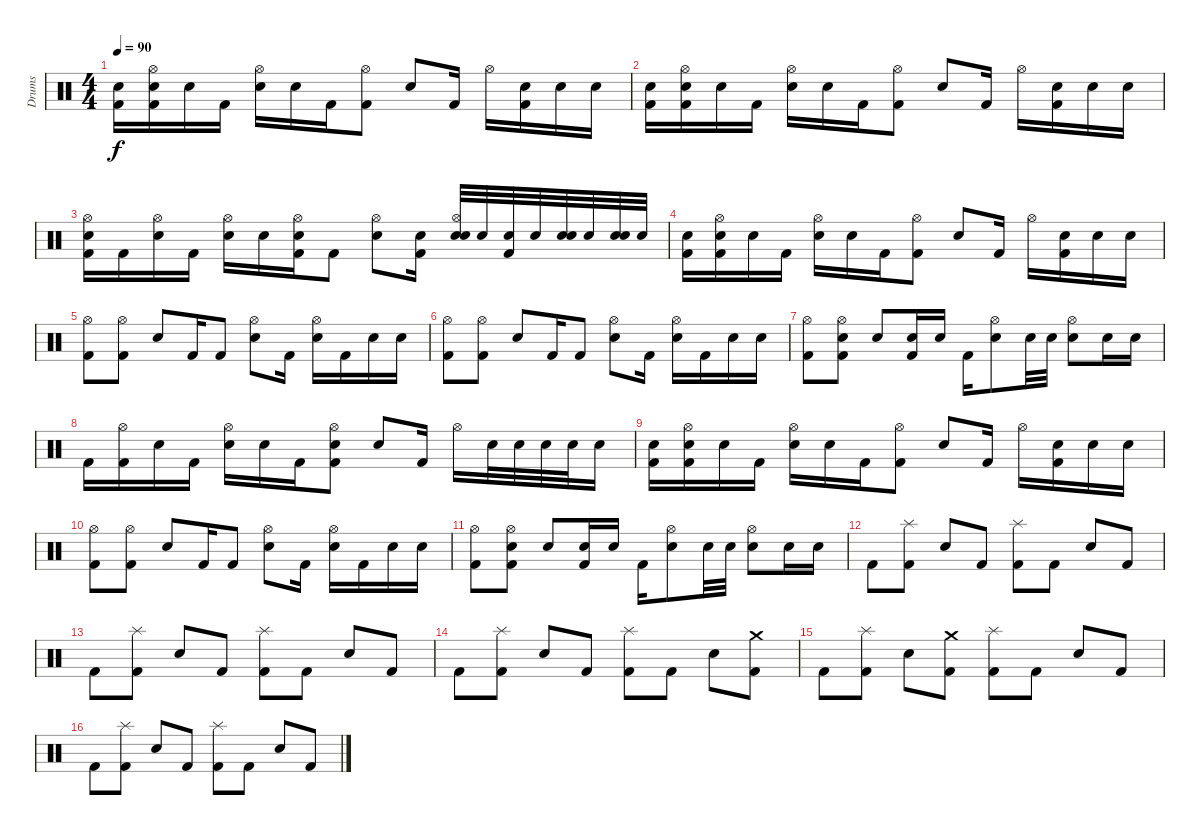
\track ("Drums" "Drums") {instrument percussion}
\staff {score}
\articulation defaults
\ts (4 4)
\tempo 90
\clef neutral
\ks c
("Snare (hit) 2" "Kick (hit) 2").16{dy f} ("Snare (hit) 2" "Hi-Hat (open)" "Kick (hit) 2").16 "Electric Snare (hit)".16 "Kick (hit) 2".16 ("Hi-Hat (open)" "Electric Snare (hit)").16 "Electric Snare (hit)".16 "Kick (hit) 2".16 ("Hi-Hat (open)" "Kick (hit) 2").8 "Electric Snare (hit)".8 "Kick (hit) 2".16 "Hi-Hat (open)".16 ("Snare (hit) 2" "Kick (hit) 2").16 "Electric Snare (hit)".16 "Electric Snare (hit)".16 |
("Snare (hit) 2" "Kick (hit) 2").16 ("Snare (hit) 2" "Hi-Hat (open)" "Kick (hit) 2").16 "Electric Snare (hit)".16 "Kick (hit) 2".16 ("Hi-Hat (open)" "Electric Snare (hit)").16 "Electric Snare (hit)".16 "Kick (hit) 2".16 ("Hi-Hat (open)" "Kick (hit) 2").8 "Electric Snare (hit)".8 "Kick (hit) 2".16 "Hi-Hat (open)".16 ("Snare (hit) 2" "Kick (hit) 2").16 "Electric Snare (hit)".16 "Electric Snare (hit)".16 |
("Hi-Hat (open)" "Snare (hit) 2" "Kick (hit) 2").16 "Kick (hit) 2".16 ("Hi-Hat (open)" "Electric Snare (hit)").16 "Kick (hit) 2".16 ("Hi-Hat (open)" "Electric Snare (hit)").16 "Electric Snare (hit)".16 ("Hi-Hat (open)" "Snare (hit) 2" "Kick (hit) 2").16 "Kick (hit) 2".8 ("Hi-Hat (open)" "Electric Snare (hit)").8 ("Snare (hit) 2" "Kick (hit) 2").16 ("Hi-Hat (open)" "Electric Snare (hit)" "Snare (hit) 2").32 "Snare (hit) 2".32 ("Snare (hit) 2" "Kick (hit) 2").32 "Snare (hit) 2".32 ("Electric Snare (hit)" "Snare (hit) 2").32 "Snare (hit) 2".32 ("Electric Snare (hit)" "Snare (hit) 2").32 "Snare (hit) 2".32 |
("Snare (hit) 2" "Kick (hit) 2").16{volume 16} ("Snare (hit) 2" "Hi-Hat (open)" "Kick (hit) 2").16 "Electric Snare (hit)".16 "Kick (hit) 2".16 ("Hi-Hat (open)" "Electric Snare (hit)").16 "Electric Snare (hit)".16 "Kick (hit) 2".16 ("Hi-Hat (open)" "Kick (hit) 2").8 "Electric Snare (hit)".8 "Kick (hit) 2".16 "Hi-Hat (open)".16 ("Snare (hit) 2" "Kick (hit) 2").16 "Electric Snare (hit)".16 "Electric Snare (hit)".16 |
("Hi-Hat (open)" "Kick (hit) 2").8 ("Hi-Hat (open)" "Kick (hit) 2").8 "Electric Snare (hit)".8 "Kick (hit) 2".16 "Kick (hit) 2".8 ("Hi-Hat (open)" "Snare (hit) 2").8 "Kick (hit) 2".16 ("Hi-Hat (open)" "Electric Snare (hit)").16 "Kick (hit) 2".16 "Snare (hit) 2".16 "Snare (hit) 2".16 |
("Hi-Hat (open)" "Kick (hit) 2").8 ("Hi-Hat (open)" "Kick (hit) 2").8 "Electric Snare (hit)".8 "Kick (hit) 2".16 "Kick (hit) 2".8 ("Hi-Hat (open)" "Snare (hit) 2").8 "Kick (hit) 2".16 ("Hi-Hat (open)" "Electric Snare (hit)").16 "Kick (hit) 2".16 "Snare (hit) 2".16 "Snare (hit) 2".16 |
("Hi-Hat (open)" "Kick (hit) 2").8 ("Hi-Hat (open)" "Electric Snare (hit)" "Kick (hit) 2").8 "Electric Snare (hit)".8 ("Electric Snare (hit)" "Kick (hit) 2").16 "Electric Snare (hit)".16 "Kick (hit) 2".16 ("Hi-Hat (open)" "Snare (hit) 2").8 "Electric Snare (hit)".32 "Electric Snare (hit)".32 ("Hi-Hat (open)" "Electric Snare (hit)").8 "Snare (hit) 2".16 "Snare (hit) 2".16 |
"Kick (hit) 2".16 ("Hi-Hat (open)" "Kick (hit) 2").16 "Electric Snare (hit)".16 "Kick (hit) 2".16 ("Hi-Hat (open)" "Electric Snare (hit)").16 "Electric Snare (hit)".16 "Kick (hit) 2".16 ("Hi-Hat (open)" "Electric Snare (hit)" "Kick (hit) 2").8 "Electric Snare (hit)".8 "Kick (hit) 2".16 "Hi-Hat (open)".16 "Electric Snare (hit)".32 "Electric Snare (hit)".32 "Electric Snare (hit)".32 "Electric Snare (hit)".32 "Electric Snare (hit)".16 |
("Snare (hit) 2" "Kick (hit) 2").16 ("Snare (hit) 2" "Hi-Hat (open)" "Kick (hit) 2").16 "Electric Snare (hit)".16 "Kick (hit) 2".16 ("Hi-Hat (open)" "Electric Snare (hit)").16 "Electric Snare (hit)".16 "Kick (hit) 2".16 ("Hi-Hat (open)" "Kick (hit) 2").8 "Electric Snare (hit)".8 "Kick (hit) 2".16 "Hi-Hat (open)".16 ("Snare (hit) 2" "Kick (hit) 2").16 "Electric Snare (hit)".16 "Electric Snare (hit)".16 |
("Hi-Hat (open)" "Kick (hit) 2").8 ("Hi-Hat (open)" "Kick (hit) 2").8 "Electric Snare (hit)".8 "Kick (hit) 2".16 "Kick (hit) 2".8 ("Hi-Hat (open)" "Snare (hit) 2").8 "Kick (hit) 2".16 ("Hi-Hat (open)" "Electric Snare (hit)").16 "Kick (hit) 2".16 "Snare (hit) 2".16 "Snare (hit) 2".16 |
("Hi-Hat (open)" "Kick (hit) 2").8 ("Hi-Hat (open)" "Electric Snare (hit)" "Kick (hit) 2").8 "Electric Snare (hit)".8 ("Electric Snare (hit)" "Kick (hit) 2").16 "Electric Snare (hit)".16 "Kick (hit) 2".16 ("Hi-Hat (open)" "Snare (hit) 2").8 "Electric Snare (hit)".32 "Electric Snare (hit)".32 ("Hi-Hat (open)" "Electric Snare (hit)").8 "Snare (hit) 2".16 "Snare (hit) 2".16 |
"Kick (hit) 2".8 ("Splash (hit)" "Kick (hit) 2").8 "Electric Snare (hit)".8 "Kick (hit) 2".8 ("Splash (hit)" "Kick (hit) 2").8 "Kick (hit) 2".8 "Electric Snare (hit)".8 "Kick (hit) 2".8 |
"Kick (hit) 2".8 ("Splash (hit)" "Kick (hit) 2").8 "Electric Snare (hit)".8 "Kick (hit) 2".8 ("Splash (hit)" "Kick (hit) 2").8 "Kick (hit) 2".8 "Electric Snare (hit)".8 "Kick (hit) 2".8 |
"Kick (hit) 2".8 ("Splash (hit)" "Kick (hit) 2").8 "Electric Snare (hit)".8 "Kick (hit) 2".8 ("Splash (hit)" "Kick (hit) 2").8 "Kick (hit) 2".8 "Snare (hit) 2".8 ("Crash medium (hit)" "Kick (hit) 2").8 |
"Kick (hit) 2".8 ("Splash (hit)" "Kick (hit) 2").8 "Electric Snare (hit)".8 ("Crash medium (hit)" "Kick (hit) 2").8 ("Splash (hit)" "Kick (hit) 2").8 "Kick (hit) 2".8 "Electric Snare (hit)".8 "Kick (hit) 2".8 |
"Kick (hit) 2".8 ("Splash (hit)" "Kick (hit) 2").8 "Electric Snare (hit)".8 "Kick (hit) 2".8 ("Splash (hit)" "Kick (hit) 2").8 "Kick (hit) 2".8 "Electric Snare (hit)".8 "Kick (hit) 2".8
